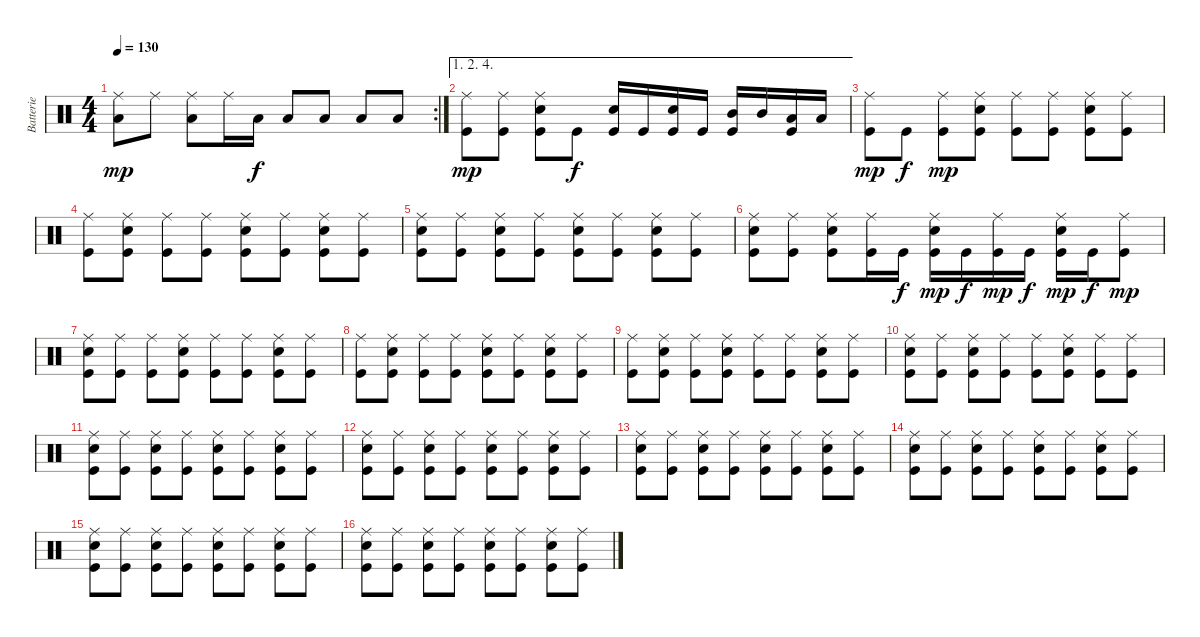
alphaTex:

\track ("Batterie" "Batterie") {instrument percussion}
\staff {score}
\articulation defaults
\rc 2
\ts (4 4)
\tempo 130
\clef neutral
\ks c
("Ride (middle)" "Low Tom (hit)").8{dy mp} "Ride (middle)".8 ("Ride (middle)" "Low Tom (hit)").8 "Ride (middle)".16 "Low Tom (hit)".16{dy f} "Low Tom (hit)".8 "Low Tom (hit)".8 "Low Tom (hit)".8 "Low Tom (hit)".8 |
\ae (1 2 4)
("Ride (middle)" "Kick (hit)").8{dy mp} ("Ride (middle)" "Kick (hit)").8 ("Ride (middle)" "Snare (hit) 2" "Kick (hit)").8 "Kick (hit)".8{dy f} ("Snare (hit) 2" "Kick (hit)").16 "Kick (hit)".16 ("Snare (hit) 2" "Kick (hit)").16 "Kick (hit)".16 ("Mid Tom (hit)" "Kick (hit)").16 "Mid Tom (hit)".16 ("Low Tom (hit)" "Kick (hit)").16 "Low Tom (hit)".16 |
("Ride (middle)" "Kick (hit)").8{dy mp} "Kick (hit)".8{dy f} ("Ride (middle)" "Kick (hit)").8{dy mp} ("Ride (middle)" "Snare (hit) 2" "Kick (hit)").8 ("Ride (middle)" "Kick (hit)").8 ("Ride (middle)" "Kick (hit)").8 ("Ride (middle)" "Snare (hit) 2" "Kick (hit)").8 ("Ride (middle)" "Kick (hit)").8 |
("Ride (middle)" "Kick (hit)").8 ("Ride (middle)" "Snare (hit) 2" "Kick (hit)").8 ("Ride (middle)" "Kick (hit)").8 ("Ride (middle)" "Kick (hit)").8 ("Ride (middle)" "Snare (hit) 2" "Kick (hit)").8 ("Ride (middle)" "Kick (hit)").8 ("Ride (middle)" "Snare (hit) 2" "Kick (hit)").8 ("Ride (middle)" "Kick (hit)").8 |
("Ride (middle)" "Snare (hit) 2" "Kick (hit)").8 ("Ride (middle)" "Kick (hit)").8 ("Ride (middle)" "Snare (hit) 2" "Kick (hit)").8 ("Ride (middle)" "Kick (hit)").8 ("Ride (middle)" "Snare (hit) 2" "Kick (hit)").8 ("Ride (middle)" "Kick (hit)").8 ("Ride (middle)" "Snare (hit) 2" "Kick (hit)").8 ("Ride (middle)" "Kick (hit)").8 |
("Ride (middle)" "Snare (hit) 2" "Kick (hit)").8 ("Ride (middle)" "Kick (hit)").8 ("Ride (middle)" "Snare (hit) 2" "Kick (hit)").8 ("Ride (middle)" "Kick (hit)").16 "Kick (hit)".16{dy f} ("Ride (middle)" "Snare (hit) 2" "Kick (hit)").16{dy mp} "Kick (hit)".16{dy f} ("Ride (middle)" "Kick (hit)").16{dy mp} "Kick (hit)".16{dy f} ("Ride (middle)" "Snare (hit) 2" "Kick (hit)").16{dy mp} "Kick (hit)".16{dy f} ("Ride (middle)" "Kick (hit)").8{dy mp} |
("Ride (middle)" "Snare (hit) 2" "Kick (hit)").8 ("Ride (middle)" "Kick (hit)").8 ("Ride (middle)" "Kick (hit)").8 ("Ride (middle)" "Snare (hit) 2" "Kick (hit)").8 ("Ride (middle)" "Kick (hit)").8 ("Ride (middle)" "Kick (hit)").8 ("Ride (middle)" "Snare (hit) 2" "Kick (hit)").8 ("Ride (middle)" "Kick (hit)").8 |
("Ride (middle)" "Kick (hit)").8 ("Ride (middle)" "Snare (hit) 2" "Kick (hit)").8 ("Ride (middle)" "Kick (hit)").8 ("Ride (middle)" "Kick (hit)").8 ("Ride (middle)" "Snare (hit) 2" "Kick (hit)").8 ("Ride (middle)" "Kick (hit)").8 ("Ride (middle)" "Snare (hit) 2" "Kick (hit)").8 ("Ride (middle)" "Kick (hit)").8 |
("Ride (middle)" "Kick (hit)").8 ("Ride (middle)" "Snare (hit) 2" "Kick (hit)").8 ("Ride (middle)" "Kick (hit)").8 ("Ride (middle)" "Snare (hit) 2" "Kick (hit)").8 ("Ride (middle)" "Kick (hit)").8 ("Ride (middle)" "Kick (hit)").8 ("Ride (middle)" "Snare (hit) 2" "Kick (hit)").8 ("Ride (middle)" "Kick (hit)").8 |
("Ride (middle)" "Snare (hit) 2" "Kick (hit)").8 ("Ride (middle)" "Kick (hit)").8 ("Ride (middle)" "Snare (hit) 2" "Kick (hit)").8 ("Ride (middle)" "Kick (hit)").8 ("Ride (middle)" "Kick (hit)").8 ("Ride (middle)" "Snare (hit) 2" "Kick (hit)").8 ("Ride (middle)" "Kick (hit)").8 ("Ride (middle)" "Kick (hit)").8 |
("Ride (middle)" "Snare (hit) 2" "Kick (hit)").8 ("Ride (middle)" "Kick (hit)").8 ("Ride (middle)" "Snare (hit) 2" "Kick (hit)").8 ("Ride (middle)" "Kick (hit)").8 ("Ride (middle)" "Snare (hit) 2" "Kick (hit)").8 ("Ride (middle)" "Kick (hit)").8 ("Ride (middle)" "Snare (hit) 2" "Kick (hit)").8 ("Ride (middle)" "Kick (hit)").8 |
("Ride (middle)" "Snare (hit) 2" "Kick (hit)").8 ("Ride (middle)" "Kick (hit)").8 ("Ride (middle)" "Snare (hit) 2" "Kick (hit)").8 ("Ride (middle)" "Kick (hit)").8 ("Ride (middle)" "Snare (hit) 2" "Kick (hit)").8 ("Ride (middle)" "Kick (hit)").8 ("Ride (middle)" "Snare (hit) 2" "Kick (hit)").8 ("Ride (middle)" "Kick (hit)").8 |
("Ride (middle)" "Snare (hit) 2" "Kick (hit)").8 ("Ride (middle)" "Kick (hit)").8 ("Ride (middle)" "Snare (hit) 2" "Kick (hit)").8 ("Ride (middle)" "Kick (hit)").8 ("Ride (middle)" "Snare (hit) 2" "Kick (hit)").8 ("Ride (middle)" "Kick (hit)").8 ("Ride (middle)" "Snare (hit) 2" "Kick (hit)").8 ("Ride (middle)" "Kick (hit)").8 |
("Ride (middle)" "Snare (hit) 2" "Kick (hit)").8 ("Ride (middle)" "Kick (hit)").8 ("Ride (middle)" "Snare (hit) 2" "Kick (hit)").8 ("Ride (middle)" "Kick (hit)").8 ("Ride (middle)" "Snare (hit) 2" "Kick (hit)").8 ("Ride (middle)" "Kick (hit)").8 ("Ride (middle)" "Snare (hit) 2" "Kick (hit)").8 ("Ride (middle)" "Kick (hit)").8 |
("Ride (middle)" "Snare (hit) 2" "Kick (hit)").8 ("Ride (middle)" "Kick (hit)").8 ("Ride (middle)" "Snare (hit) 2" "Kick (hit)").8 ("Ride (middle)" "Kick (hit)").8 ("Ride (middle)" "Snare (hit) 2" "Kick (hit)").8 ("Ride (middle)" "Kick (hit)").8 ("Ride (middle)" "Snare (hit) 2" "Kick (hit)").8 ("Ride (middle)" "Kick (hit)").8 |
("Ride (middle)" "Snare (hit) 2" "Kick (hit)").8 ("Ride (middle)" "Kick (hit)").8 ("Ride (middle)" "Snare (hit) 2" "Kick (hit)").8 ("Ride (middle)" "Kick (hit)").8 ("Ride (middle)" "Snare (hit) 2" "Kick (hit)").8 ("Ride (middle)" "Kick (hit)").8 ("Ride (middle)" "Snare (hit) 2" "Kick (hit)").8 ("Ride (middle)" "Kick (hit)").8
